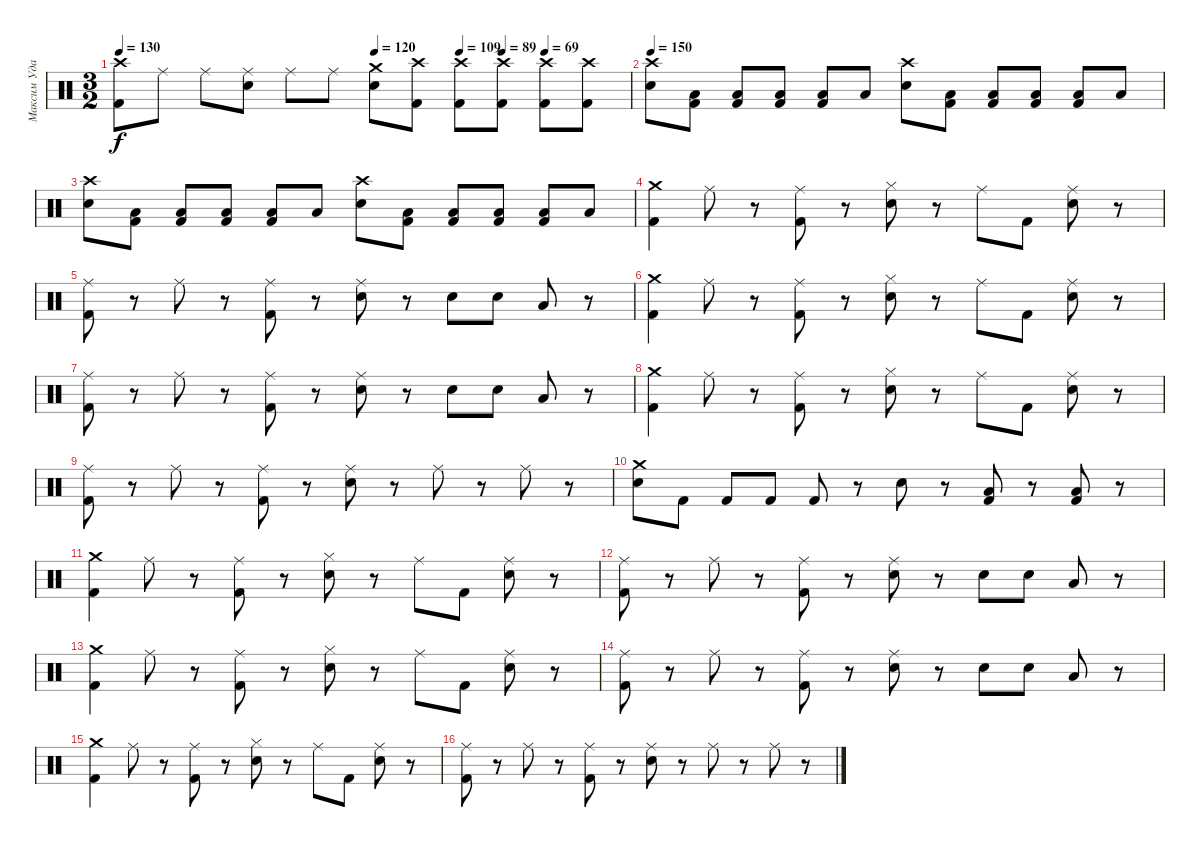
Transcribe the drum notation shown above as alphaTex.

\track ("Максим Удалов" "Максим Уда") {instrument percussion}
\staff {score}
\articulation defaults
\ts (3 2)
\tempo 130
\tempo (120 0.5)
\tempo (109 0.6666666666666666)
\tempo (89 0.75)
\tempo (69 0.8333333333333334)
\clef neutral
\ks c
("Crash high (hit)" "Kick (hit) 2").8{dy f} "Ride (middle)".8 "Ride (middle)".8 ("Ride (middle)" "Electric Snare (hit)").8 "Ride (middle)".8 "Ride (middle)".8 ("Electric Snare (hit)" "Crash medium (hit)").8 ("Crash high (hit)" "Kick (hit) 2").8 ("Kick (hit) 2" "Crash high (hit)").8 ("Kick (hit) 2" "Crash high (hit)").8 ("Crash high (hit)" "Kick (hit) 2").8 ("Crash high (hit)" "Kick (hit) 2").8 |
\tempo 150
("Electric Snare (hit)" "Crash high (hit)").8 ("Kick (hit) 2" "Low Floor Tom (hit)").8 ("Kick (hit) 2" "Low Floor Tom (hit)").8 ("Kick (hit) 2" "Low Floor Tom (hit)").8 ("Kick (hit) 2" "Low Floor Tom (hit)").8 "Low Floor Tom (hit)".8 ("Electric Snare (hit)" "Crash high (hit)").8 ("Low Floor Tom (hit)" "Kick (hit) 2").8 ("Kick (hit) 2" "Low Floor Tom (hit)").8 ("Low Floor Tom (hit)" "Kick (hit) 2").8 ("Kick (hit) 2" "Low Floor Tom (hit)").8 "Low Floor Tom (hit)".8 |
("Crash high (hit)" "Electric Snare (hit)").8 ("Low Floor Tom (hit)" "Kick (hit) 2").8 ("Kick (hit) 2" "Low Floor Tom (hit)").8 ("Kick (hit) 2" "Low Floor Tom (hit)").8 ("Kick (hit) 2" "Low Floor Tom (hit)").8 "Low Floor Tom (hit)".8 ("Electric Snare (hit)" "Crash high (hit)").8 ("Kick (hit) 2" "Low Floor Tom (hit)").8 ("Kick (hit) 2" "Low Floor Tom (hit)").8 ("Kick (hit) 2" "Low Floor Tom (hit)").8 ("Low Floor Tom (hit)" "Kick (hit) 2").8 "Low Floor Tom (hit)".8 |
("Kick (hit) 2" "Crash medium (hit)").4 "Ride (middle)".8 r.8 ("Ride (middle)" "Kick (hit) 2").8 r.8 ("Electric Snare (hit)" "Hi-Hat (closed)").8 r.8 "Ride (middle)".8 "Kick (hit) 2".8 ("Electric Snare (hit)" "Ride (middle)").8 r.8 |
("Kick (hit) 2" "Ride (middle)").8 r.8 "Ride (middle)".8 r.8 ("Kick (hit) 2" "Ride (middle)").8 r.8 ("Electric Snare (hit)" "Ride (middle)").8 r.8 "Electric Snare (hit)".8 "Electric Snare (hit)".8 "Low Floor Tom (hit)".8 r.8 |
("Kick (hit) 2" "Crash medium (hit)").4 "Ride (middle)".8 r.8 ("Kick (hit) 2" "Ride (middle)").8 r.8 ("Electric Snare (hit)" "Hi-Hat (closed)").8 r.8 "Ride (middle)".8 "Kick (hit) 2".8 ("Ride (middle)" "Electric Snare (hit)").8 r.8 |
("Kick (hit) 2" "Ride (middle)").8 r.8 "Ride (middle)".8 r.8 ("Ride (middle)" "Kick (hit) 2").8 r.8 ("Electric Snare (hit)" "Ride (middle)").8 r.8 "Electric Snare (hit)".8 "Electric Snare (hit)".8 "Low Floor Tom (hit)".8 r.8 |
("Kick (hit) 2" "Crash medium (hit)").4 "Ride (middle)".8 r.8 ("Ride (middle)" "Kick (hit) 2").8 r.8 ("Hi-Hat (closed)" "Electric Snare (hit)").8 r.8 "Ride (middle)".8 "Kick (hit) 2".8 ("Ride (middle)" "Electric Snare (hit)").8 r.8 |
("Ride (middle)" "Kick (hit) 2").8 r.8 "Ride (middle)".8 r.8 ("Ride (middle)" "Kick (hit) 2").8 r.8 ("Electric Snare (hit)" "Ride (middle)").8 r.8 "Ride (middle)".8 r.8 "Ride (middle)".8 r.8 |
("Electric Snare (hit)" "Crash medium (hit)").8 "Kick (hit) 2".8 "Kick (hit) 2".8 "Kick (hit) 2".8 "Kick (hit) 2".8 r.8 "Electric Snare (hit)".8 r.8 ("Low Floor Tom (hit)" "Kick (hit) 2").8 r.8 ("Low Floor Tom (hit)" "Kick (hit) 2").8 r.8 |
("Crash medium (hit)" "Kick (hit) 2").4 "Ride (middle)".8 r.8 ("Ride (middle)" "Kick (hit) 2").8 r.8 ("Hi-Hat (closed)" "Electric Snare (hit)").8 r.8 "Ride (middle)".8 "Kick (hit) 2".8 ("Ride (middle)" "Electric Snare (hit)").8 r.8 |
("Kick (hit) 2" "Ride (middle)").8 r.8 "Ride (middle)".8 r.8 ("Kick (hit) 2" "Ride (middle)").8 r.8 ("Electric Snare (hit)" "Ride (middle)").8 r.8 "Electric Snare (hit)".8 "Electric Snare (hit)".8 "Low Floor Tom (hit)".8 r.8 |
("Crash medium (hit)" "Kick (hit) 2").4 "Ride (middle)".8 r.8 ("Kick (hit) 2" "Ride (middle)").8 r.8 ("Electric Snare (hit)" "Hi-Hat (closed)").8 r.8 "Ride (middle)".8 "Kick (hit) 2".8 ("Ride (middle)" "Electric Snare (hit)").8 r.8 |
("Kick (hit) 2" "Ride (middle)").8 r.8 "Ride (middle)".8 r.8 ("Kick (hit) 2" "Ride (middle)").8 r.8 ("Electric Snare (hit)" "Ride (middle)").8 r.8 "Electric Snare (hit)".8 "Electric Snare (hit)".8 "Low Floor Tom (hit)".8 r.8 |
("Kick (hit) 2" "Crash medium (hit)").4 "Ride (middle)".8 r.8 ("Kick (hit) 2" "Ride (middle)").8 r.8 ("Hi-Hat (closed)" "Electric Snare (hit)").8 r.8 "Ride (middle)".8 "Kick (hit) 2".8 ("Ride (middle)" "Electric Snare (hit)").8 r.8 |
("Ride (middle)" "Kick (hit) 2").8 r.8 "Ride (middle)".8 r.8 ("Kick (hit) 2" "Ride (middle)").8 r.8 ("Ride (middle)" "Electric Snare (hit)").8 r.8 "Ride (middle)".8 r.8 "Ride (middle)".8 r.8
